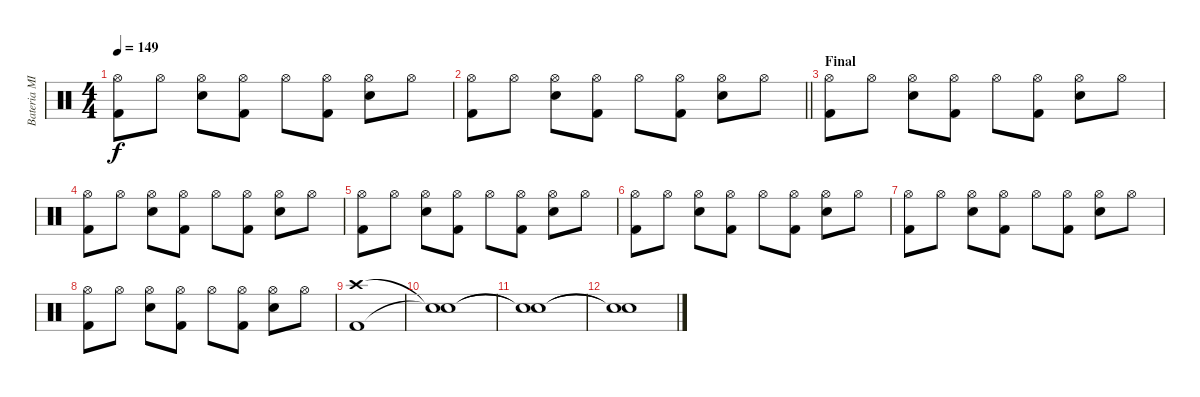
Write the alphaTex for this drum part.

\track ("Bateria MIDI" "Bateria MI") {instrument percussion}
\staff {score}
\articulation defaults
\ts (4 4)
\tempo 149
\clef neutral
\ks c
("Hi-Hat (open)" "Kick (hit) 2").8{dy f} "Hi-Hat (open)".8 ("Hi-Hat (open)" "Snare (hit) 2").8 ("Hi-Hat (open)" "Kick (hit) 2").8 "Hi-Hat (open)".8 ("Hi-Hat (open)" "Kick (hit) 2").8 ("Hi-Hat (open)" "Snare (hit) 2").8 "Hi-Hat (open)".8 |
\barLineRight lightlight
("Hi-Hat (open)" "Kick (hit) 2").8 "Hi-Hat (open)".8 ("Hi-Hat (open)" "Snare (hit) 2").8 ("Hi-Hat (open)" "Kick (hit) 2").8 "Hi-Hat (open)".8 ("Hi-Hat (open)" "Kick (hit) 2").8 ("Hi-Hat (open)" "Snare (hit) 2").8 "Hi-Hat (open)".8 |
\section ("" "Final")
("Hi-Hat (open)" "Kick (hit) 2").8 "Hi-Hat (open)".8 ("Hi-Hat (open)" "Snare (hit) 2").8 ("Hi-Hat (open)" "Kick (hit) 2").8 "Hi-Hat (open)".8 ("Hi-Hat (open)" "Kick (hit) 2").8 ("Hi-Hat (open)" "Snare (hit) 2").8 "Hi-Hat (open)".8 |
("Hi-Hat (open)" "Kick (hit) 2").8 "Hi-Hat (open)".8 ("Hi-Hat (open)" "Snare (hit) 2").8 ("Hi-Hat (open)" "Kick (hit) 2").8 "Hi-Hat (open)".8 ("Hi-Hat (open)" "Kick (hit) 2").8 ("Hi-Hat (open)" "Snare (hit) 2").8 "Hi-Hat (open)".8 |
("Hi-Hat (open)" "Kick (hit) 2").8 "Hi-Hat (open)".8 ("Hi-Hat (open)" "Snare (hit) 2").8 ("Hi-Hat (open)" "Kick (hit) 2").8 "Hi-Hat (open)".8 ("Hi-Hat (open)" "Kick (hit) 2").8 ("Hi-Hat (open)" "Snare (hit) 2").8 "Hi-Hat (open)".8 |
("Hi-Hat (open)" "Kick (hit) 2").8 "Hi-Hat (open)".8 ("Hi-Hat (open)" "Snare (hit) 2").8 ("Hi-Hat (open)" "Kick (hit) 2").8 "Hi-Hat (open)".8 ("Hi-Hat (open)" "Kick (hit) 2").8 ("Hi-Hat (open)" "Snare (hit) 2").8 "Hi-Hat (open)".8 |
("Hi-Hat (open)" "Kick (hit) 2").8 "Hi-Hat (open)".8 ("Hi-Hat (open)" "Snare (hit) 2").8 ("Hi-Hat (open)" "Kick (hit) 2").8 "Hi-Hat (open)".8 ("Hi-Hat (open)" "Kick (hit) 2").8 ("Hi-Hat (open)" "Snare (hit) 2").8 "Hi-Hat (open)".8 |
("Hi-Hat (open)" "Kick (hit) 2").8 "Hi-Hat (open)".8 ("Hi-Hat (open)" "Snare (hit) 2").8 ("Hi-Hat (open)" "Kick (hit) 2").8 "Hi-Hat (open)".8 ("Hi-Hat (open)" "Kick (hit) 2").8 ("Hi-Hat (open)" "Snare (hit) 2").8 "Hi-Hat (open)".8 |
("Crash high (hit)" "Kick (hit) 2").1 |
("Snare (hit)"{t} "Snare (hit)"{t}).1 |
("Snare (hit)"{t} "Snare (hit)"{t}).1 |
("Snare (hit)"{t} "Snare (hit)"{t}).1
